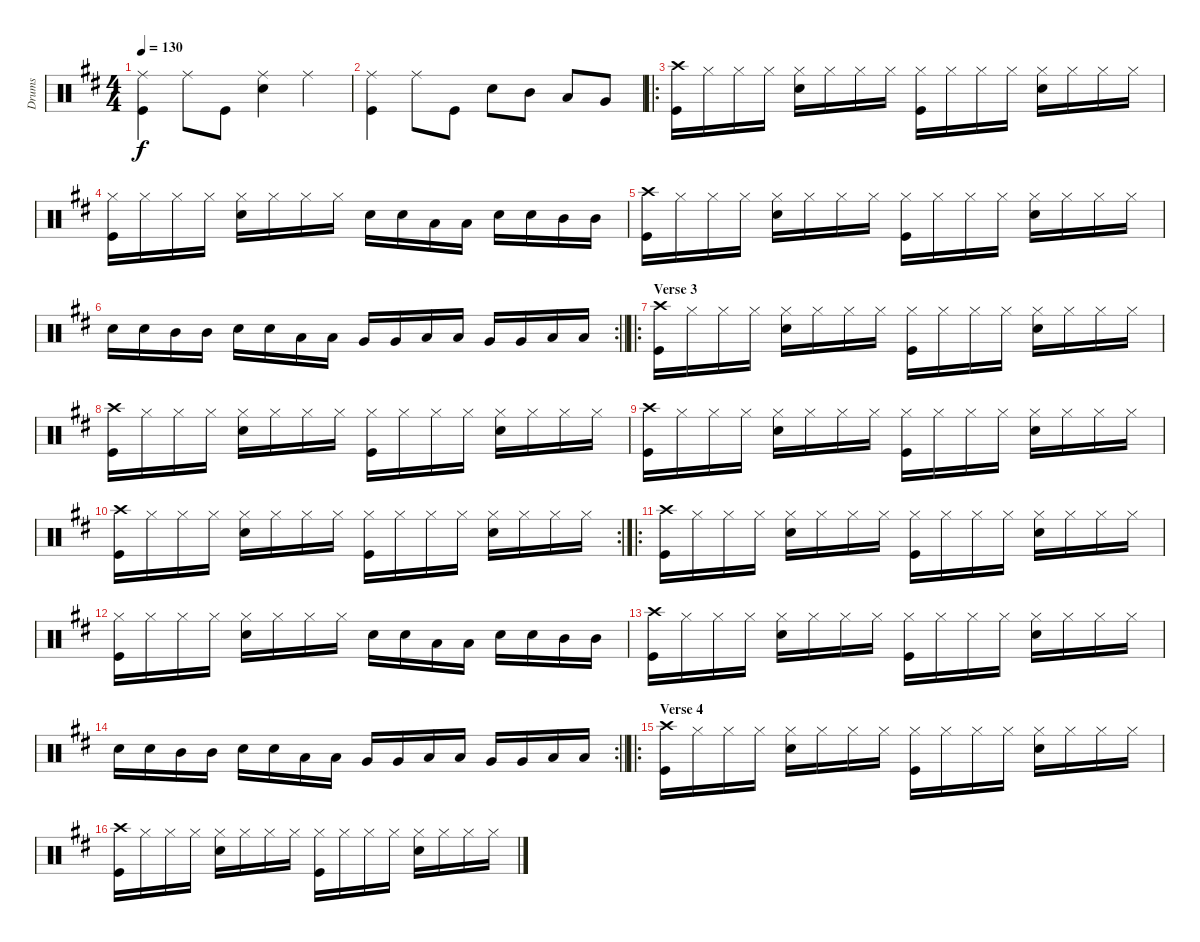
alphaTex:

\track ("Drums" "Drums") {instrument percussion}
\staff {score}
\articulation defaults
\ts (4 4)
\tempo 130
\clef neutral
\ks d
("Ride (middle)" "Kick (hit)").4{dy f} "Ride (middle)".8 "Kick (hit)".8 ("Ride (middle)" "Snare (hit) 2").4 "Ride (middle)".4 |
("Ride (middle)" "Kick (hit)").4 "Ride (middle)".8 "Kick (hit)".8 "Snare (hit) 2".8 "Mid Tom (hit)".8 "Low Tom (hit)".8 "Very Low Tom (hit)".8 |
\ro
("Crash high (hit)" "Kick (hit)").16 "Hi-Hat (closed)".16 "Hi-Hat (closed)".16 "Hi-Hat (closed)".16 ("Hi-Hat (closed)" "Snare (hit) 2").16 "Hi-Hat (closed)".16 "Hi-Hat (closed)".16 "Hi-Hat (closed)".16 ("Hi-Hat (closed)" "Kick (hit)").16 "Hi-Hat (closed)".16 "Hi-Hat (closed)".16 "Hi-Hat (closed)".16 ("Hi-Hat (closed)" "Snare (hit) 2").16 "Hi-Hat (closed)".16 "Hi-Hat (closed)".16 "Hi-Hat (closed)".16 |
("Hi-Hat (closed)" "Kick (hit)").16 "Hi-Hat (closed)".16 "Hi-Hat (closed)".16 "Hi-Hat (closed)".16 ("Hi-Hat (closed)" "Snare (hit) 2").16 "Hi-Hat (closed)".16 "Hi-Hat (closed)".16 "Hi-Hat (closed)".16 "Snare (hit) 2".16 "Snare (hit) 2".16 "Low Tom (hit)".16 "Low Tom (hit)".16 "Snare (hit) 2".16 "Snare (hit) 2".16 "Mid Tom (hit)".16 "Mid Tom (hit)".16 |
("Crash high (hit)" "Kick (hit)").16 "Hi-Hat (closed)".16 "Hi-Hat (closed)".16 "Hi-Hat (closed)".16 ("Hi-Hat (closed)" "Snare (hit) 2").16 "Hi-Hat (closed)".16 "Hi-Hat (closed)".16 "Hi-Hat (closed)".16 ("Hi-Hat (closed)" "Kick (hit)").16 "Hi-Hat (closed)".16 "Hi-Hat (closed)".16 "Hi-Hat (closed)".16 ("Hi-Hat (closed)" "Snare (hit) 2").16 "Hi-Hat (closed)".16 "Hi-Hat (closed)".16 "Hi-Hat (closed)".16 |
\rc 2
\barLineRight lightlight "Snare (hit) 2".16 "Snare (hit) 2".16 "Mid Tom (hit)".16 "Mid Tom (hit)".16 "Snare (hit) 2".16 "Snare (hit) 2".16 "Low Tom (hit)".16 "Low Tom (hit)".16 "Very Low Tom (hit)".16 "Very Low Tom (hit)".16 "Low Floor Tom (hit)".16 "Low Floor Tom (hit)".16 "Very Low Tom (hit)".16 "Very Low Tom (hit)".16 "Low Floor Tom (hit)".16 "Low Floor Tom (hit)".16
|
\ro
\section ("" "Verse 3")
("Crash high (hit)" "Kick (hit)").16 "Hi-Hat (closed)".16 "Hi-Hat (closed)".16 "Hi-Hat (closed)".16 ("Hi-Hat (closed)" "Snare (hit) 2").16 "Hi-Hat (closed)".16 "Hi-Hat (closed)".16 "Hi-Hat (closed)".16 ("Hi-Hat (closed)" "Kick (hit)").16 "Hi-Hat (closed)".16 "Hi-Hat (closed)".16 "Hi-Hat (closed)".16 ("Hi-Hat (closed)" "Snare (hit) 2").16 "Hi-Hat (closed)".16 "Hi-Hat (closed)".16 "Hi-Hat (closed)".16 |
("Crash high (hit)" "Kick (hit)").16 "Hi-Hat (closed)".16 "Hi-Hat (closed)".16 "Hi-Hat (closed)".16 ("Hi-Hat (closed)" "Snare (hit) 2").16 "Hi-Hat (closed)".16 "Hi-Hat (closed)".16 "Hi-Hat (closed)".16 ("Hi-Hat (closed)" "Kick (hit)").16 "Hi-Hat (closed)".16 "Hi-Hat (closed)".16 "Hi-Hat (closed)".16 ("Hi-Hat (closed)" "Snare (hit) 2").16 "Hi-Hat (closed)".16 "Hi-Hat (closed)".16 "Hi-Hat (closed)".16 |
("Crash high (hit)" "Kick (hit)").16 "Hi-Hat (closed)".16 "Hi-Hat (closed)".16 "Hi-Hat (closed)".16 ("Hi-Hat (closed)" "Snare (hit) 2").16 "Hi-Hat (closed)".16 "Hi-Hat (closed)".16 "Hi-Hat (closed)".16 ("Hi-Hat (closed)" "Kick (hit)").16 "Hi-Hat (closed)".16 "Hi-Hat (closed)".16 "Hi-Hat (closed)".16 ("Hi-Hat (closed)" "Snare (hit) 2").16 "Hi-Hat (closed)".16 "Hi-Hat (closed)".16 "Hi-Hat (closed)".16 |
\rc 2
("Crash high (hit)" "Kick (hit)").16 "Hi-Hat (closed)".16 "Hi-Hat (closed)".16 "Hi-Hat (closed)".16 ("Hi-Hat (closed)" "Snare (hit) 2").16 "Hi-Hat (closed)".16 "Hi-Hat (closed)".16 "Hi-Hat (closed)".16 ("Hi-Hat (closed)" "Kick (hit)").16 "Hi-Hat (closed)".16 "Hi-Hat (closed)".16 "Hi-Hat (closed)".16 ("Hi-Hat (closed)" "Snare (hit) 2").16 "Hi-Hat (closed)".16 "Hi-Hat (closed)".16 "Hi-Hat (closed)".16 |
\ro
("Crash high (hit)" "Kick (hit)").16 "Hi-Hat (closed)".16 "Hi-Hat (closed)".16 "Hi-Hat (closed)".16 ("Hi-Hat (closed)" "Snare (hit) 2").16 "Hi-Hat (closed)".16 "Hi-Hat (closed)".16 "Hi-Hat (closed)".16 ("Hi-Hat (closed)" "Kick (hit)").16 "Hi-Hat (closed)".16 "Hi-Hat (closed)".16 "Hi-Hat (closed)".16 ("Hi-Hat (closed)" "Snare (hit) 2").16 "Hi-Hat (closed)".16 "Hi-Hat (closed)".16 "Hi-Hat (closed)".16 |
("Hi-Hat (closed)" "Kick (hit)").16 "Hi-Hat (closed)".16 "Hi-Hat (closed)".16 "Hi-Hat (closed)".16 ("Hi-Hat (closed)" "Snare (hit) 2").16 "Hi-Hat (closed)".16 "Hi-Hat (closed)".16 "Hi-Hat (closed)".16 "Snare (hit) 2".16 "Snare (hit) 2".16 "Low Tom (hit)".16 "Low Tom (hit)".16 "Snare (hit) 2".16 "Snare (hit) 2".16 "Mid Tom (hit)".16 "Mid Tom (hit)".16 |
("Crash high (hit)" "Kick (hit)").16 "Hi-Hat (closed)".16 "Hi-Hat (closed)".16 "Hi-Hat (closed)".16 ("Hi-Hat (closed)" "Snare (hit) 2").16 "Hi-Hat (closed)".16 "Hi-Hat (closed)".16 "Hi-Hat (closed)".16 ("Hi-Hat (closed)" "Kick (hit)").16 "Hi-Hat (closed)".16 "Hi-Hat (closed)".16 "Hi-Hat (closed)".16 ("Hi-Hat (closed)" "Snare (hit) 2").16 "Hi-Hat (closed)".16 "Hi-Hat (closed)".16 "Hi-Hat (closed)".16 |
\rc 2
\barLineRight lightlight "Snare (hit) 2".16 "Snare (hit) 2".16 "Mid Tom (hit)".16 "Mid Tom (hit)".16 "Snare (hit) 2".16 "Snare (hit) 2".16 "Low Tom (hit)".16 "Low Tom (hit)".16 "Very Low Tom (hit)".16 "Very Low Tom (hit)".16 "Low Floor Tom (hit)".16 "Low Floor Tom (hit)".16 "Very Low Tom (hit)".16 "Very Low Tom (hit)".16 "Low Floor Tom (hit)".16 "Low Floor Tom (hit)".16
|
\ro
\section ("" "Verse 4")
("Crash high (hit)" "Kick (hit)").16 "Hi-Hat (closed)".16 "Hi-Hat (closed)".16 "Hi-Hat (closed)".16 ("Hi-Hat (closed)" "Snare (hit) 2").16 "Hi-Hat (closed)".16 "Hi-Hat (closed)".16 "Hi-Hat (closed)".16 ("Hi-Hat (closed)" "Kick (hit)").16 "Hi-Hat (closed)".16 "Hi-Hat (closed)".16 "Hi-Hat (closed)".16 ("Hi-Hat (closed)" "Snare (hit) 2").16 "Hi-Hat (closed)".16 "Hi-Hat (closed)".16 "Hi-Hat (closed)".16 |
("Crash high (hit)" "Kick (hit)").16 "Hi-Hat (closed)".16 "Hi-Hat (closed)".16 "Hi-Hat (closed)".16 ("Hi-Hat (closed)" "Snare (hit) 2").16 "Hi-Hat (closed)".16 "Hi-Hat (closed)".16 "Hi-Hat (closed)".16 ("Hi-Hat (closed)" "Kick (hit)").16 "Hi-Hat (closed)".16 "Hi-Hat (closed)".16 "Hi-Hat (closed)".16 ("Hi-Hat (closed)" "Snare (hit) 2").16 "Hi-Hat (closed)".16 "Hi-Hat (closed)".16 "Hi-Hat (closed)".16
